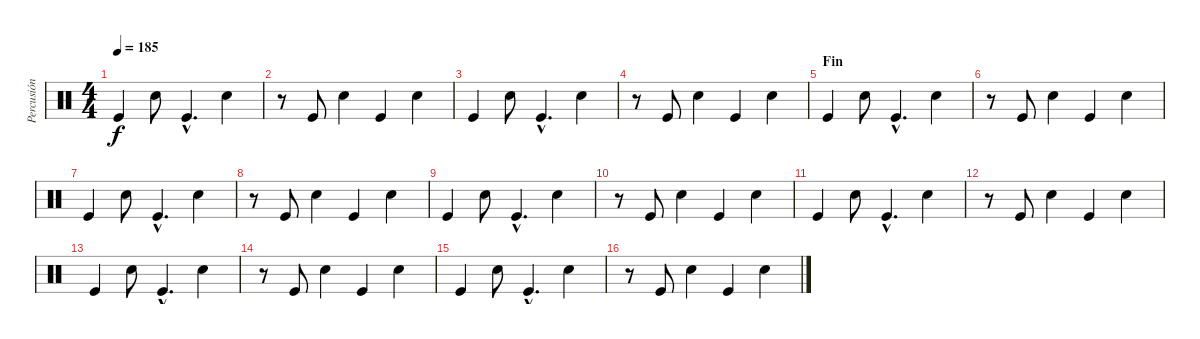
\track ("Percusión" "Percusión") {instrument percussion}
\staff {score}
\articulation defaults
\ts (4 4)
\tempo 185
\clef neutral
\ks c "Kick (hit)".4{dy f} "Electric Snare (hit)".8 "Kick (hit)"{hac}.4{d} "Electric Snare (hit)".4
|
r.8 "Kick (hit)".8 "Electric Snare (hit)".4 "Kick (hit)".4 "Electric Snare (hit)".4 |
"Kick (hit)".4 "Electric Snare (hit)".8 "Kick (hit)"{hac}.4{d} "Electric Snare (hit)".4 |
r.8 "Kick (hit)".8 "Electric Snare (hit)".4 "Kick (hit)".4 "Electric Snare (hit)".4 |
\section ("" "Fin")
"Kick (hit)".4 "Electric Snare (hit)".8 "Kick (hit)"{hac}.4{d} "Electric Snare (hit)".4 |
r.8 "Kick (hit)".8 "Electric Snare (hit)".4 "Kick (hit)".4 "Electric Snare (hit)".4 |
"Kick (hit)".4 "Electric Snare (hit)".8 "Kick (hit)"{hac}.4{d} "Electric Snare (hit)".4 |
r.8 "Kick (hit)".8 "Electric Snare (hit)".4 "Kick (hit)".4 "Electric Snare (hit)".4 |
"Kick (hit)".4 "Electric Snare (hit)".8 "Kick (hit)"{hac}.4{d} "Electric Snare (hit)".4 |
r.8 "Kick (hit)".8 "Electric Snare (hit)".4 "Kick (hit)".4 "Electric Snare (hit)".4 |
"Kick (hit)".4 "Electric Snare (hit)".8 "Kick (hit)"{hac}.4{d} "Electric Snare (hit)".4 |
r.8 "Kick (hit)".8 "Electric Snare (hit)".4 "Kick (hit)".4 "Electric Snare (hit)".4 |
"Kick (hit)".4 "Electric Snare (hit)".8 "Kick (hit)"{hac}.4{d} "Electric Snare (hit)".4 |
r.8 "Kick (hit)".8 "Electric Snare (hit)".4 "Kick (hit)".4 "Electric Snare (hit)".4 |
"Kick (hit)".4 "Electric Snare (hit)".8 "Kick (hit)"{hac}.4{d} "Electric Snare (hit)".4 |
r.8 "Kick (hit)".8 "Electric Snare (hit)".4 "Kick (hit)".4 "Electric Snare (hit)".4
